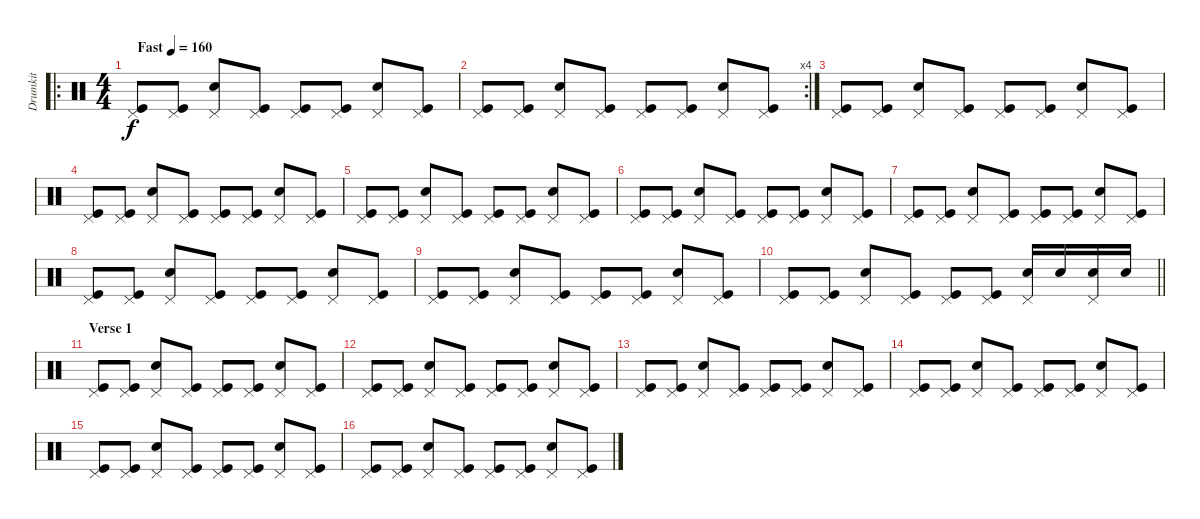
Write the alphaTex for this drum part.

\track ("Drumkit" "Drumkit") {instrument percussion}
\staff {score}
\articulation defaults
\ro
\ts (4 4)
\tempo (160 "Fast")
\clef neutral
\ks c
("Pedal Hi-Hat (hit)" "Kick (hit)").8{dy f} ("Pedal Hi-Hat (hit)" "Kick (hit)").8 ("Pedal Hi-Hat (hit)" "Snare (hit) 2").8 ("Pedal Hi-Hat (hit)" "Kick (hit)").8 ("Pedal Hi-Hat (hit)" "Kick (hit)").8 ("Pedal Hi-Hat (hit)" "Kick (hit)").8 ("Pedal Hi-Hat (hit)" "Snare (hit) 2").8 ("Pedal Hi-Hat (hit)" "Kick (hit)").8 |
\rc 4
("Pedal Hi-Hat (hit)" "Kick (hit)").8 ("Pedal Hi-Hat (hit)" "Kick (hit)").8 ("Pedal Hi-Hat (hit)" "Snare (hit) 2").8 ("Pedal Hi-Hat (hit)" "Kick (hit)").8 ("Pedal Hi-Hat (hit)" "Kick (hit)").8 ("Pedal Hi-Hat (hit)" "Kick (hit)").8 ("Pedal Hi-Hat (hit)" "Snare (hit) 2").8 ("Pedal Hi-Hat (hit)" "Kick (hit)").8 |
("Pedal Hi-Hat (hit)" "Kick (hit)").8 ("Pedal Hi-Hat (hit)" "Kick (hit)").8 ("Pedal Hi-Hat (hit)" "Snare (hit) 2").8 ("Pedal Hi-Hat (hit)" "Kick (hit)").8 ("Pedal Hi-Hat (hit)" "Kick (hit)").8 ("Pedal Hi-Hat (hit)" "Kick (hit)").8 ("Pedal Hi-Hat (hit)" "Snare (hit) 2").8 ("Pedal Hi-Hat (hit)" "Kick (hit)").8 |
("Pedal Hi-Hat (hit)" "Kick (hit)").8 ("Pedal Hi-Hat (hit)" "Kick (hit)").8 ("Pedal Hi-Hat (hit)" "Snare (hit) 2").8 ("Pedal Hi-Hat (hit)" "Kick (hit)").8 ("Pedal Hi-Hat (hit)" "Kick (hit)").8 ("Pedal Hi-Hat (hit)" "Kick (hit)").8 ("Pedal Hi-Hat (hit)" "Snare (hit) 2").8 ("Pedal Hi-Hat (hit)" "Kick (hit)").8 |
("Pedal Hi-Hat (hit)" "Kick (hit)").8 ("Pedal Hi-Hat (hit)" "Kick (hit)").8 ("Pedal Hi-Hat (hit)" "Snare (hit) 2").8 ("Pedal Hi-Hat (hit)" "Kick (hit)").8 ("Pedal Hi-Hat (hit)" "Kick (hit)").8 ("Pedal Hi-Hat (hit)" "Kick (hit)").8 ("Pedal Hi-Hat (hit)" "Snare (hit) 2").8 ("Pedal Hi-Hat (hit)" "Kick (hit)").8 |
("Pedal Hi-Hat (hit)" "Kick (hit)").8 ("Pedal Hi-Hat (hit)" "Kick (hit)").8 ("Pedal Hi-Hat (hit)" "Snare (hit) 2").8 ("Pedal Hi-Hat (hit)" "Kick (hit)").8 ("Pedal Hi-Hat (hit)" "Kick (hit)").8 ("Pedal Hi-Hat (hit)" "Kick (hit)").8 ("Pedal Hi-Hat (hit)" "Snare (hit) 2").8 ("Pedal Hi-Hat (hit)" "Kick (hit)").8 |
("Pedal Hi-Hat (hit)" "Kick (hit)").8 ("Pedal Hi-Hat (hit)" "Kick (hit)").8 ("Pedal Hi-Hat (hit)" "Snare (hit) 2").8 ("Pedal Hi-Hat (hit)" "Kick (hit)").8 ("Pedal Hi-Hat (hit)" "Kick (hit)").8 ("Pedal Hi-Hat (hit)" "Kick (hit)").8 ("Pedal Hi-Hat (hit)" "Snare (hit) 2").8 ("Pedal Hi-Hat (hit)" "Kick (hit)").8 |
("Pedal Hi-Hat (hit)" "Kick (hit)").8 ("Pedal Hi-Hat (hit)" "Kick (hit)").8 ("Pedal Hi-Hat (hit)" "Snare (hit) 2").8 ("Pedal Hi-Hat (hit)" "Kick (hit)").8 ("Pedal Hi-Hat (hit)" "Kick (hit)").8 ("Pedal Hi-Hat (hit)" "Kick (hit)").8 ("Pedal Hi-Hat (hit)" "Snare (hit) 2").8 ("Pedal Hi-Hat (hit)" "Kick (hit)").8 |
("Pedal Hi-Hat (hit)" "Kick (hit)").8 ("Pedal Hi-Hat (hit)" "Kick (hit)").8 ("Pedal Hi-Hat (hit)" "Snare (hit) 2").8 ("Pedal Hi-Hat (hit)" "Kick (hit)").8 ("Pedal Hi-Hat (hit)" "Kick (hit)").8 ("Pedal Hi-Hat (hit)" "Kick (hit)").8 ("Pedal Hi-Hat (hit)" "Snare (hit) 2").8 ("Pedal Hi-Hat (hit)" "Kick (hit)").8 |
\barLineRight lightlight
("Pedal Hi-Hat (hit)" "Kick (hit)").8 ("Pedal Hi-Hat (hit)" "Kick (hit)").8 ("Pedal Hi-Hat (hit)" "Snare (hit) 2").8 ("Pedal Hi-Hat (hit)" "Kick (hit)").8 ("Pedal Hi-Hat (hit)" "Kick (hit)").8 ("Pedal Hi-Hat (hit)" "Kick (hit)").8 ("Pedal Hi-Hat (hit)" "Snare (hit) 2").16 "Snare (hit) 2".16 ("Pedal Hi-Hat (hit)" "Snare (hit) 2").16 "Snare (hit) 2".16 |
\section ("" "Verse 1")
("Pedal Hi-Hat (hit)" "Kick (hit)").8 ("Pedal Hi-Hat (hit)" "Kick (hit)").8 ("Pedal Hi-Hat (hit)" "Snare (hit) 2").8 ("Pedal Hi-Hat (hit)" "Kick (hit)").8 ("Pedal Hi-Hat (hit)" "Kick (hit)").8 ("Pedal Hi-Hat (hit)" "Kick (hit)").8 ("Pedal Hi-Hat (hit)" "Snare (hit) 2").8 ("Pedal Hi-Hat (hit)" "Kick (hit)").8 |
("Pedal Hi-Hat (hit)" "Kick (hit)").8 ("Pedal Hi-Hat (hit)" "Kick (hit)").8 ("Pedal Hi-Hat (hit)" "Snare (hit) 2").8 ("Pedal Hi-Hat (hit)" "Kick (hit)").8 ("Pedal Hi-Hat (hit)" "Kick (hit)").8 ("Pedal Hi-Hat (hit)" "Kick (hit)").8 ("Pedal Hi-Hat (hit)" "Snare (hit) 2").8 ("Pedal Hi-Hat (hit)" "Kick (hit)").8 |
("Pedal Hi-Hat (hit)" "Kick (hit)").8 ("Pedal Hi-Hat (hit)" "Kick (hit)").8 ("Pedal Hi-Hat (hit)" "Snare (hit) 2").8 ("Pedal Hi-Hat (hit)" "Kick (hit)").8 ("Pedal Hi-Hat (hit)" "Kick (hit)").8 ("Pedal Hi-Hat (hit)" "Kick (hit)").8 ("Pedal Hi-Hat (hit)" "Snare (hit) 2").8 ("Pedal Hi-Hat (hit)" "Kick (hit)").8 |
("Pedal Hi-Hat (hit)" "Kick (hit)").8 ("Pedal Hi-Hat (hit)" "Kick (hit)").8 ("Pedal Hi-Hat (hit)" "Snare (hit) 2").8 ("Pedal Hi-Hat (hit)" "Kick (hit)").8 ("Pedal Hi-Hat (hit)" "Kick (hit)").8 ("Pedal Hi-Hat (hit)" "Kick (hit)").8 ("Pedal Hi-Hat (hit)" "Snare (hit) 2").8 ("Pedal Hi-Hat (hit)" "Kick (hit)").8 |
("Pedal Hi-Hat (hit)" "Kick (hit)").8 ("Pedal Hi-Hat (hit)" "Kick (hit)").8 ("Pedal Hi-Hat (hit)" "Snare (hit) 2").8 ("Pedal Hi-Hat (hit)" "Kick (hit)").8 ("Pedal Hi-Hat (hit)" "Kick (hit)").8 ("Pedal Hi-Hat (hit)" "Kick (hit)").8 ("Pedal Hi-Hat (hit)" "Snare (hit) 2").8 ("Pedal Hi-Hat (hit)" "Kick (hit)").8 |
("Pedal Hi-Hat (hit)" "Kick (hit)").8 ("Pedal Hi-Hat (hit)" "Kick (hit)").8 ("Pedal Hi-Hat (hit)" "Snare (hit) 2").8 ("Pedal Hi-Hat (hit)" "Kick (hit)").8 ("Pedal Hi-Hat (hit)" "Kick (hit)").8 ("Pedal Hi-Hat (hit)" "Kick (hit)").8 ("Pedal Hi-Hat (hit)" "Snare (hit) 2").8 ("Pedal Hi-Hat (hit)" "Kick (hit)").8
